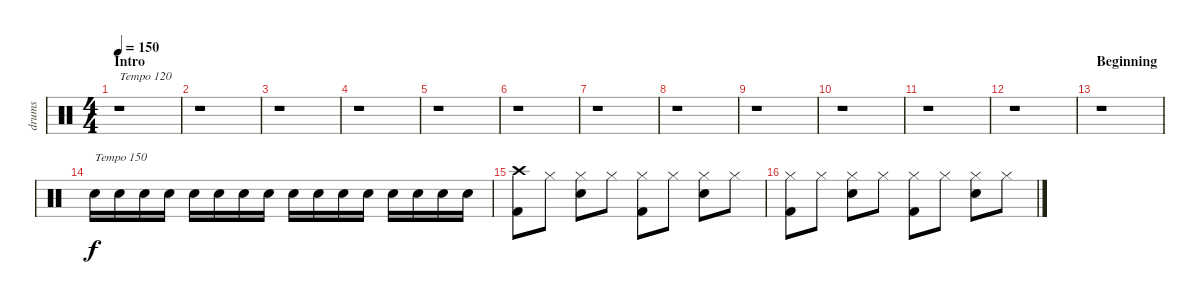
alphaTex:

\track ("drums" "drums") {instrument percussion}
\staff {score}
\articulation defaults
\ts (4 4)
\section ("" "Intro")
\tempo 150
\clef neutral
\ks c
r.1{txt "Tempo 120" dy f} |
r.1 |
r.1 |
r.1 |
r.1 |
r.1 |
r.1 |
r.1 |
r.1 |
r.1 |
r.1 |
r.1 |
\section ("" "Beginning")
r.1 |
"Electric Snare (hit)".16{txt "Tempo 150"} "Electric Snare (hit)".16 "Electric Snare (hit)".16 "Electric Snare (hit)".16 "Electric Snare (hit)".16 "Electric Snare (hit)".16 "Electric Snare (hit)".16 "Electric Snare (hit)".16 "Electric Snare (hit)".16 "Electric Snare (hit)".16 "Electric Snare (hit)".16 "Electric Snare (hit)".16 "Electric Snare (hit)".16 "Electric Snare (hit)".16 "Electric Snare (hit)".16 "Electric Snare (hit)".16 |
("Crash high (hit)" "Kick (hit) 2").8 "Hi-Hat (closed)".8 ("Hi-Hat (closed)" "Electric Snare (hit)").8 "Hi-Hat (closed)".8 ("Hi-Hat (closed)" "Kick (hit) 2").8 "Hi-Hat (closed)".8 ("Hi-Hat (closed)" "Electric Snare (hit)").8 "Hi-Hat (closed)".8 |
("Hi-Hat (closed)" "Kick (hit) 2").8 "Hi-Hat (closed)".8 ("Hi-Hat (closed)" "Electric Snare (hit)").8 "Hi-Hat (closed)".8 ("Hi-Hat (closed)" "Kick (hit) 2").8 "Hi-Hat (closed)".8 ("Hi-Hat (closed)" "Electric Snare (hit)").8 "Hi-Hat (closed)".8
